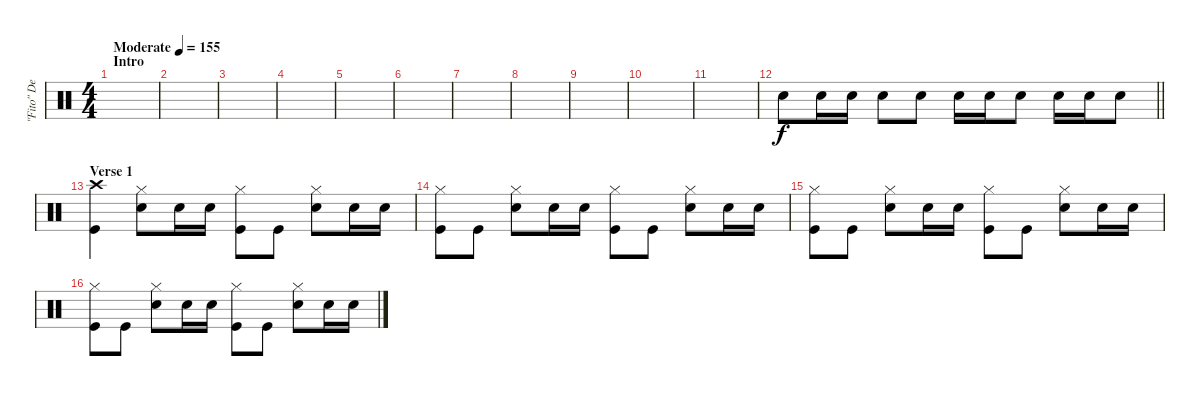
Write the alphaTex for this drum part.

\track ("\"Fito\" De La Parra" "\"Fito\" De ") {instrument percussion}
\staff {score}
\articulation defaults
\ts (4 4)
\section ("" "Intro")
\tempo (155 "Moderate")
\clef neutral
\ks c
|
|
|
|
|
|
|
|
|
|
|
\barLineRight lightlight "Snare (hit) 2".8 "Snare (hit) 2".16 "Snare (hit) 2".16 "Snare (hit) 2".8 "Snare (hit) 2".8 "Snare (hit) 2".16 "Snare (hit) 2".16 "Snare (hit) 2".8 "Snare (hit) 2".16 "Snare (hit) 2".16 "Snare (hit) 2".8
|
\section ("" "Verse 1")
("Crash high (hit)" "Kick (hit)").4 ("Hi-Hat (closed)" "Snare (hit) 2").8 "Snare (hit) 2".16 "Snare (hit) 2".16 ("Hi-Hat (closed)" "Kick (hit)").8 "Kick (hit)".8 ("Hi-Hat (closed)" "Snare (hit) 2").8 "Snare (hit) 2".16 "Snare (hit) 2".16 |
("Hi-Hat (closed)" "Kick (hit)").8 "Kick (hit)".8 ("Hi-Hat (closed)" "Snare (hit) 2").8 "Snare (hit) 2".16 "Snare (hit) 2".16 ("Hi-Hat (closed)" "Kick (hit)").8 "Kick (hit)".8 ("Hi-Hat (closed)" "Snare (hit) 2").8 "Snare (hit) 2".16 "Snare (hit) 2".16 |
("Hi-Hat (closed)" "Kick (hit)").8 "Kick (hit)".8 ("Hi-Hat (closed)" "Snare (hit) 2").8 "Snare (hit) 2".16 "Snare (hit) 2".16 ("Hi-Hat (closed)" "Kick (hit)").8 "Kick (hit)".8 ("Hi-Hat (closed)" "Snare (hit) 2").8 "Snare (hit) 2".16 "Snare (hit) 2".16 |
("Hi-Hat (closed)" "Kick (hit)").8 "Kick (hit)".8 ("Hi-Hat (closed)" "Snare (hit) 2").8 "Snare (hit) 2".16 "Snare (hit) 2".16 ("Hi-Hat (closed)" "Kick (hit)").8 "Kick (hit)".8 ("Hi-Hat (closed)" "Snare (hit) 2").8 "Snare (hit) 2".16 "Snare (hit) 2".16
